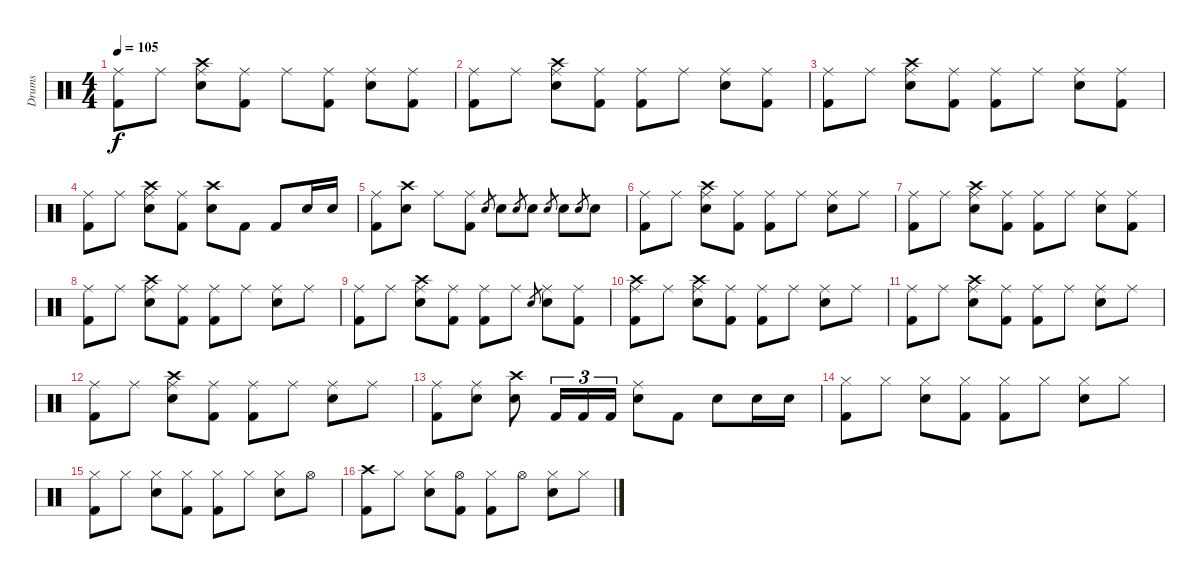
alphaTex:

\track ("Drums" "Drums") {instrument percussion}
\staff {score}
\articulation defaults
\ts (4 4)
\tempo 105
\clef neutral
\ks c
("Ride (middle)" "Kick (hit) 2").8{dy f} "Ride (middle)".8 ("Crash high (hit)" "Ride (middle)" "Electric Snare (hit)").8 ("Ride (middle)" "Kick (hit) 2").8 "Ride (middle)".8 ("Ride (middle)" "Kick (hit) 2").8 ("Ride (middle)" "Electric Snare (hit)").8 ("Ride (middle)" "Kick (hit) 2").8 |
("Ride (middle)" "Kick (hit) 2").8 "Ride (middle)".8 ("Crash high (hit)" "Ride (middle)" "Electric Snare (hit)").8 ("Ride (middle)" "Kick (hit) 2").8 ("Ride (middle)" "Kick (hit) 2").8 "Ride (middle)".8 ("Ride (middle)" "Electric Snare (hit)").8 ("Ride (middle)" "Kick (hit) 2").8 |
("Ride (middle)" "Kick (hit) 2").8 "Ride (middle)".8 ("Crash high (hit)" "Ride (middle)" "Electric Snare (hit)").8 ("Ride (middle)" "Kick (hit) 2").8 ("Ride (middle)" "Kick (hit) 2").8 "Ride (middle)".8 ("Ride (middle)" "Electric Snare (hit)").8 ("Ride (middle)" "Kick (hit) 2").8 |
("Ride (middle)" "Kick (hit) 2").8 "Ride (middle)".8 ("Crash high (hit)" "Ride (middle)" "Electric Snare (hit)").8 ("Ride (middle)" "Kick (hit) 2").8 ("Crash high (hit)" "Electric Snare (hit)").8 "Kick (hit) 2".8 "Kick (hit) 2".8 "Electric Snare (hit)".16 "Electric Snare (hit)".16 |
("Ride (middle)" "Kick (hit) 2").8 ("Crash high (hit)" "Electric Snare (hit)").8 "Ride (middle)".8 ("Ride (middle)" "Kick (hit) 2").8 "Electric Snare (hit)".8{gr} "Electric Snare (hit)".8 "Electric Snare (hit)".8{gr} "Electric Snare (hit)".8 "Electric Snare (hit)".8{gr} "Electric Snare (hit)".8 "Electric Snare (hit)".8{gr} "Electric Snare (hit)".8 |
("Ride (middle)" "Kick (hit) 2").8 "Ride (middle)".8 ("Crash high (hit)" "Ride (middle)" "Electric Snare (hit)").8 ("Ride (middle)" "Kick (hit) 2").8 ("Ride (middle)" "Kick (hit) 2").8 "Ride (middle)".8 ("Ride (middle)" "Electric Snare (hit)").8 "Ride (middle)".8 |
("Ride (middle)" "Kick (hit) 2").8 "Ride (middle)".8 ("Crash high (hit)" "Ride (middle)" "Electric Snare (hit)").8 ("Ride (middle)" "Kick (hit) 2").8 ("Ride (middle)" "Kick (hit) 2").8 "Ride (middle)".8 ("Ride (middle)" "Electric Snare (hit)").8 ("Ride (middle)" "Kick (hit) 2").8 |
("Ride (middle)" "Kick (hit) 2").8 "Ride (middle)".8 ("Crash high (hit)" "Ride (middle)" "Electric Snare (hit)").8 ("Ride (middle)" "Kick (hit) 2").8 ("Ride (middle)" "Kick (hit) 2").8 "Ride (middle)".8 ("Ride (middle)" "Electric Snare (hit)").8 "Ride (middle)".8 |
("Ride (middle)" "Kick (hit) 2").8 "Ride (middle)".8 ("Crash high (hit)" "Ride (middle)" "Electric Snare (hit)").8 ("Ride (middle)" "Kick (hit) 2").8 ("Ride (middle)" "Kick (hit) 2").8 "Ride (middle)".8 "Electric Snare (hit)".8{gr} ("Ride (middle)" "Electric Snare (hit)").8 ("Ride (middle)" "Kick (hit) 2").8 |
("Crash high (hit)" "Ride (middle)" "Kick (hit) 2").8 "Ride (middle)".8 ("Crash high (hit)" "Ride (middle)" "Electric Snare (hit)").8 ("Ride (middle)" "Kick (hit) 2").8 ("Ride (middle)" "Kick (hit) 2").8 "Ride (middle)".8 ("Ride (middle)" "Electric Snare (hit)").8 "Ride (middle)".8 |
("Ride (middle)" "Kick (hit) 2").8 "Ride (middle)".8 ("Crash high (hit)" "Ride (middle)" "Electric Snare (hit)").8 ("Ride (middle)" "Kick (hit) 2").8 ("Ride (middle)" "Kick (hit) 2").8 "Ride (middle)".8 ("Ride (middle)" "Electric Snare (hit)").8 "Ride (middle)".8 |
("Ride (middle)" "Kick (hit) 2").8 "Ride (middle)".8 ("Crash high (hit)" "Ride (middle)" "Electric Snare (hit)").8 ("Ride (middle)" "Kick (hit) 2").8 ("Ride (middle)" "Kick (hit) 2").8 "Ride (middle)".8 ("Ride (middle)" "Electric Snare (hit)").8 "Ride (middle)".8 |
("Ride (middle)" "Kick (hit) 2").8 ("Ride (middle)" "Electric Snare (hit)").8 ("Crash high (hit)" "Electric Snare (hit)").8 "Kick (hit) 2".16{tu (3 2)} "Kick (hit) 2".16{tu (3 2)} "Kick (hit) 2".16{tu (3 2)} ("Ride (middle)" "Electric Snare (hit)").8 "Kick (hit) 2".8 "Electric Snare (hit)".8 "Electric Snare (hit)".16 "Electric Snare (hit)".16 |
("Hi-Hat (closed)" "Kick (hit) 2").8 "Hi-Hat (closed)".8 ("Hi-Hat (closed)" "Electric Snare (hit)").8 ("Hi-Hat (closed)" "Kick (hit) 2").8 ("Hi-Hat (closed)" "Kick (hit) 2").8 "Hi-Hat (closed)".8 ("Hi-Hat (closed)" "Electric Snare (hit)").8 "Hi-Hat (closed)".8 |
("Hi-Hat (closed)" "Kick (hit) 2").8 "Hi-Hat (closed)".8 ("Hi-Hat (closed)" "Electric Snare (hit)").8 ("Hi-Hat (closed)" "Kick (hit) 2").8 ("Hi-Hat (closed)" "Kick (hit) 2").8 "Hi-Hat (closed)".8 ("Hi-Hat (closed)" "Electric Snare (hit)").8 "Hi-Hat (open)".8 |
("Crash high (hit)" "Kick (hit) 2").8 "Hi-Hat (closed)".8 ("Hi-Hat (closed)" "Electric Snare (hit)").8 ("Hi-Hat (open)" "Kick (hit) 2").8 ("Hi-Hat (closed)" "Kick (hit) 2").8 "Hi-Hat (open)".8 ("Hi-Hat (closed)" "Electric Snare (hit)").8 "Hi-Hat (closed)".8
